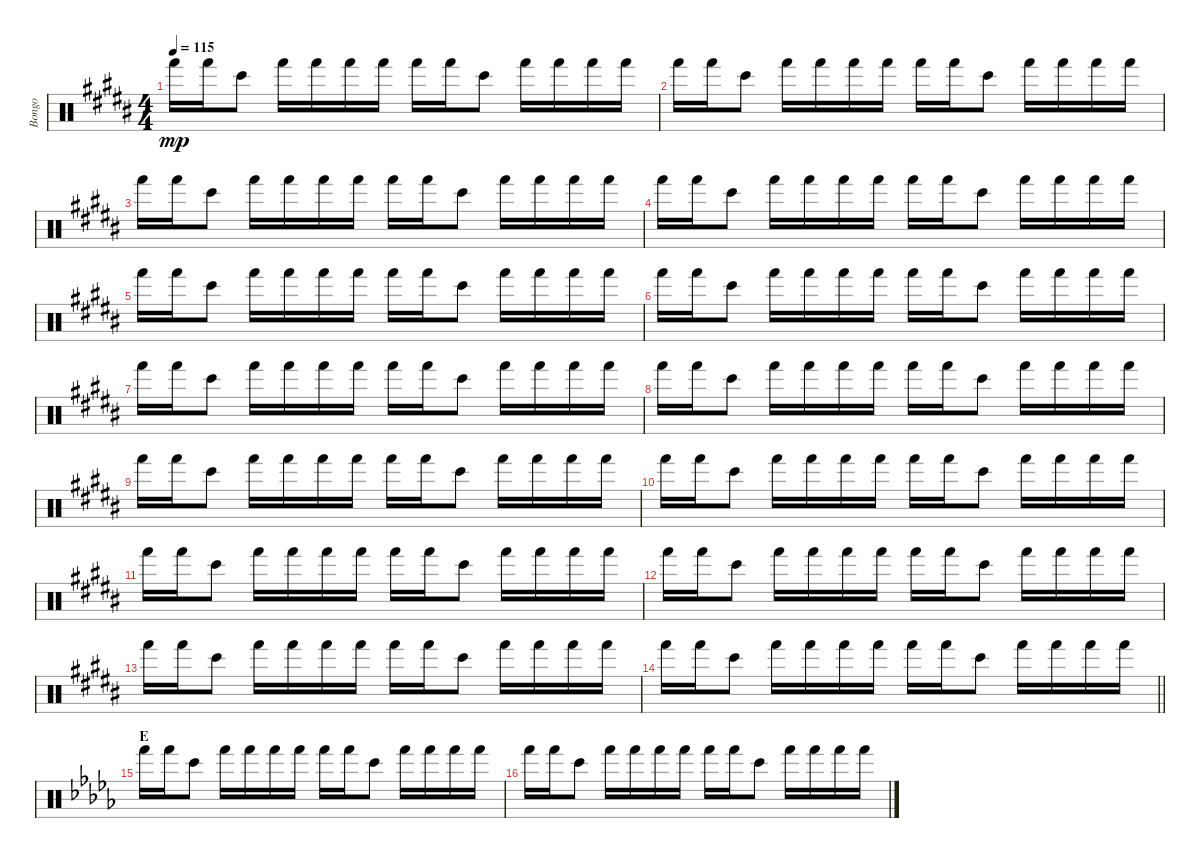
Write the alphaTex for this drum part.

\track ("Bongo" "Bongo") {instrument percussion}
\staff {score}
\articulation defaults
\ts (4 4)
\tempo 115
\clef neutral
\ks b "Hand (hit)".16{dy mp} "Hand (hit)".16 "Bongo High (hit)".8 "Hand (hit)".16 "Hand (hit)".16 "Hand (hit)".16 "Hand (hit)".16 "Hand (hit)".16 "Hand (hit)".16 "Bongo High (hit)".8 "Hand (hit)".16 "Hand (hit)".16 "Hand (hit)".16 "Hand (hit)".16
|
"Hand (hit)".16 "Hand (hit)".16 "Bongo High (hit)".8 "Hand (hit)".16 "Hand (hit)".16 "Hand (hit)".16 "Hand (hit)".16 "Hand (hit)".16 "Hand (hit)".16 "Bongo High (hit)".8 "Hand (hit)".16 "Hand (hit)".16 "Hand (hit)".16 "Hand (hit)".16 |
"Hand (hit)".16 "Hand (hit)".16 "Bongo High (hit)".8 "Hand (hit)".16 "Hand (hit)".16 "Hand (hit)".16 "Hand (hit)".16 "Hand (hit)".16 "Hand (hit)".16 "Bongo High (hit)".8 "Hand (hit)".16 "Hand (hit)".16 "Hand (hit)".16 "Hand (hit)".16 |
"Hand (hit)".16 "Hand (hit)".16 "Bongo High (hit)".8 "Hand (hit)".16 "Hand (hit)".16 "Hand (hit)".16 "Hand (hit)".16 "Hand (hit)".16 "Hand (hit)".16 "Bongo High (hit)".8 "Hand (hit)".16 "Hand (hit)".16 "Hand (hit)".16 "Hand (hit)".16 |
"Hand (hit)".16 "Hand (hit)".16 "Bongo High (hit)".8 "Hand (hit)".16 "Hand (hit)".16 "Hand (hit)".16 "Hand (hit)".16 "Hand (hit)".16 "Hand (hit)".16 "Bongo High (hit)".8 "Hand (hit)".16 "Hand (hit)".16 "Hand (hit)".16 "Hand (hit)".16 |
"Hand (hit)".16 "Hand (hit)".16 "Bongo High (hit)".8 "Hand (hit)".16 "Hand (hit)".16 "Hand (hit)".16 "Hand (hit)".16 "Hand (hit)".16 "Hand (hit)".16 "Bongo High (hit)".8 "Hand (hit)".16 "Hand (hit)".16 "Hand (hit)".16 "Hand (hit)".16 |
"Hand (hit)".16 "Hand (hit)".16 "Bongo High (hit)".8 "Hand (hit)".16 "Hand (hit)".16 "Hand (hit)".16 "Hand (hit)".16 "Hand (hit)".16 "Hand (hit)".16 "Bongo High (hit)".8 "Hand (hit)".16 "Hand (hit)".16 "Hand (hit)".16 "Hand (hit)".16 |
"Hand (hit)".16 "Hand (hit)".16 "Bongo High (hit)".8 "Hand (hit)".16 "Hand (hit)".16 "Hand (hit)".16 "Hand (hit)".16 "Hand (hit)".16 "Hand (hit)".16 "Bongo High (hit)".8 "Hand (hit)".16 "Hand (hit)".16 "Hand (hit)".16 "Hand (hit)".16 |
"Hand (hit)".16 "Hand (hit)".16 "Bongo High (hit)".8 "Hand (hit)".16 "Hand (hit)".16 "Hand (hit)".16 "Hand (hit)".16 "Hand (hit)".16 "Hand (hit)".16 "Bongo High (hit)".8 "Hand (hit)".16 "Hand (hit)".16 "Hand (hit)".16 "Hand (hit)".16 |
"Hand (hit)".16 "Hand (hit)".16 "Bongo High (hit)".8 "Hand (hit)".16 "Hand (hit)".16 "Hand (hit)".16 "Hand (hit)".16 "Hand (hit)".16 "Hand (hit)".16 "Bongo High (hit)".8 "Hand (hit)".16 "Hand (hit)".16 "Hand (hit)".16 "Hand (hit)".16 |
"Hand (hit)".16 "Hand (hit)".16 "Bongo High (hit)".8 "Hand (hit)".16 "Hand (hit)".16 "Hand (hit)".16 "Hand (hit)".16 "Hand (hit)".16 "Hand (hit)".16 "Bongo High (hit)".8 "Hand (hit)".16 "Hand (hit)".16 "Hand (hit)".16 "Hand (hit)".16 |
"Hand (hit)".16 "Hand (hit)".16 "Bongo High (hit)".8 "Hand (hit)".16 "Hand (hit)".16 "Hand (hit)".16 "Hand (hit)".16 "Hand (hit)".16 "Hand (hit)".16 "Bongo High (hit)".8 "Hand (hit)".16 "Hand (hit)".16 "Hand (hit)".16 "Hand (hit)".16 |
"Hand (hit)".16 "Hand (hit)".16 "Bongo High (hit)".8 "Hand (hit)".16 "Hand (hit)".16 "Hand (hit)".16 "Hand (hit)".16 "Hand (hit)".16 "Hand (hit)".16 "Bongo High (hit)".8 "Hand (hit)".16 "Hand (hit)".16 "Hand (hit)".16 "Hand (hit)".16 |
\barLineRight lightlight "Hand (hit)".16 "Hand (hit)".16 "Bongo High (hit)".8 "Hand (hit)".16 "Hand (hit)".16 "Hand (hit)".16 "Hand (hit)".16 "Hand (hit)".16 "Hand (hit)".16 "Bongo High (hit)".8 "Hand (hit)".16 "Hand (hit)".16 "Hand (hit)".16 "Hand (hit)".16
|
\section ("" "E")
\ks db "Hand (hit)".16 "Hand (hit)".16 "Bongo High (hit)".8 "Hand (hit)".16 "Hand (hit)".16 "Hand (hit)".16 "Hand (hit)".16 "Hand (hit)".16 "Hand (hit)".16 "Bongo High (hit)".8 "Hand (hit)".16 "Hand (hit)".16 "Hand (hit)".16 "Hand (hit)".16
|
"Hand (hit)".16 "Hand (hit)".16 "Bongo High (hit)".8 "Hand (hit)".16 "Hand (hit)".16 "Hand (hit)".16 "Hand (hit)".16 "Hand (hit)".16 "Hand (hit)".16 "Bongo High (hit)".8 "Hand (hit)".16 "Hand (hit)".16 "Hand (hit)".16 "Hand (hit)".16
